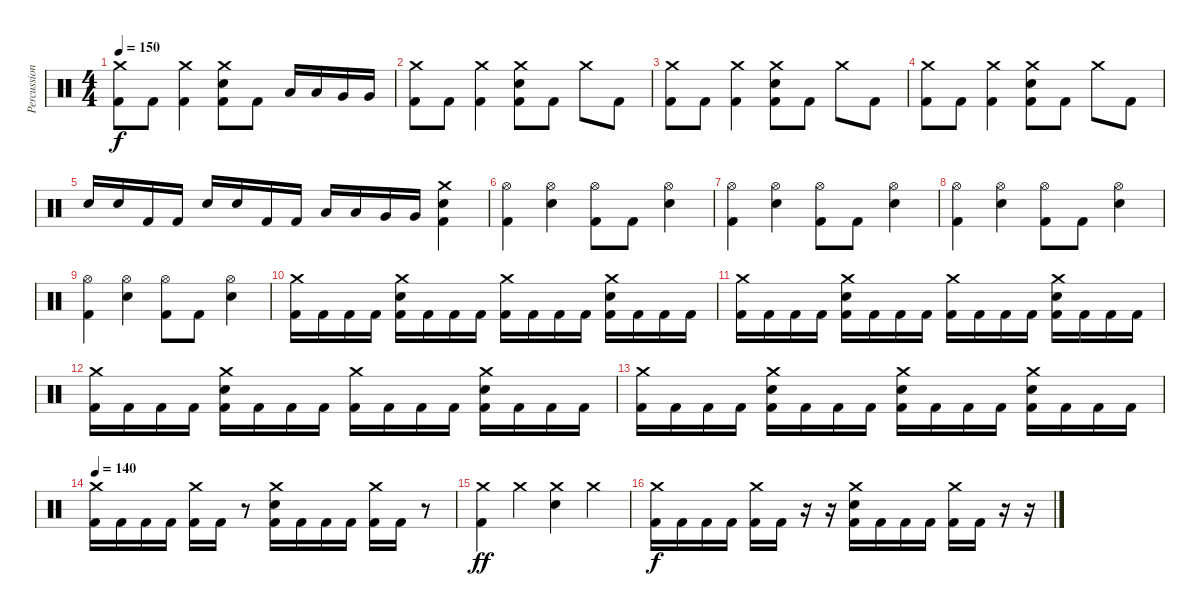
\track ("Percussion" "Percussion") {instrument percussion}
\staff {score}
\articulation defaults
\ts (4 4)
\tempo 150
\clef neutral
\ks c
("Crash medium (hit)" "Kick (hit) 2").8{dy f} "Kick (hit) 2".8 ("Crash medium (hit)" "Kick (hit) 2").4 ("Crash medium (hit)" "Electric Snare (hit)" "Kick (hit) 2").8 "Kick (hit) 2".8 "Low Tom (hit)".16 "Low Tom (hit)".16 "Very Low Tom (hit)".16 "Very Low Tom (hit)".16 |
("Crash medium (hit)" "Kick (hit) 2").8 "Kick (hit) 2".8 ("Crash medium (hit)" "Kick (hit) 2").4 ("Crash medium (hit)" "Electric Snare (hit)" "Kick (hit) 2").8 "Kick (hit) 2".8 "Crash medium (hit)".8 "Kick (hit) 2".8 |
("Crash medium (hit)" "Kick (hit) 2").8 "Kick (hit) 2".8 ("Crash medium (hit)" "Kick (hit) 2").4 ("Crash medium (hit)" "Electric Snare (hit)" "Kick (hit) 2").8 "Kick (hit) 2".8 "Crash medium (hit)".8 "Kick (hit) 2".8 |
("Crash medium (hit)" "Kick (hit) 2").8 "Kick (hit) 2".8 ("Crash medium (hit)" "Kick (hit) 2").4 ("Crash medium (hit)" "Electric Snare (hit)" "Kick (hit) 2").8 "Kick (hit) 2".8 "Crash medium (hit)".8 "Kick (hit) 2".8 |
"Electric Snare (hit)".16 "Electric Snare (hit)".16 "Kick (hit) 2".16 "Kick (hit) 2".16 "Electric Snare (hit)".16 "Electric Snare (hit)".16 "Kick (hit) 2".16 "Kick (hit) 2".16 "Low Tom (hit)".16 "Low Tom (hit)".16 "Very Low Tom (hit)".16 "Very Low Tom (hit)".16 ("Crash medium (hit)" "Electric Snare (hit)" "Kick (hit) 2").4 |
("Hi-Hat (open)" "Kick (hit) 2").4 ("Hi-Hat (open)" "Electric Snare (hit)").4 ("Hi-Hat (open)" "Kick (hit) 2").8 "Kick (hit) 2".8 ("Hi-Hat (open)" "Electric Snare (hit)").4 |
("Hi-Hat (open)" "Kick (hit) 2").4 ("Hi-Hat (open)" "Electric Snare (hit)").4 ("Hi-Hat (open)" "Kick (hit) 2").8 "Kick (hit) 2".8 ("Hi-Hat (open)" "Electric Snare (hit)").4 |
("Hi-Hat (open)" "Kick (hit) 2").4 ("Hi-Hat (open)" "Electric Snare (hit)").4 ("Hi-Hat (open)" "Kick (hit) 2").8 "Kick (hit) 2".8 ("Hi-Hat (open)" "Electric Snare (hit)").4 |
("Hi-Hat (open)" "Kick (hit) 2").4 ("Hi-Hat (open)" "Electric Snare (hit)").4 ("Hi-Hat (open)" "Kick (hit) 2").8 "Kick (hit) 2".8 ("Hi-Hat (open)" "Electric Snare (hit)").4 |
("Crash medium (hit)" "Kick (hit) 2").16 "Kick (hit) 2".16 "Kick (hit) 2".16 "Kick (hit) 2".16 ("Crash medium (hit)" "Electric Snare (hit)" "Kick (hit) 2").16 "Kick (hit) 2".16 "Kick (hit) 2".16 "Kick (hit) 2".16 ("Crash medium (hit)" "Kick (hit) 2").16 "Kick (hit) 2".16 "Kick (hit) 2".16 "Kick (hit) 2".16 ("Crash medium (hit)" "Electric Snare (hit)" "Kick (hit) 2").16 "Kick (hit) 2".16 "Kick (hit) 2".16 "Kick (hit) 2".16 |
("Crash medium (hit)" "Kick (hit) 2").16 "Kick (hit) 2".16 "Kick (hit) 2".16 "Kick (hit) 2".16 ("Crash medium (hit)" "Electric Snare (hit)" "Kick (hit) 2").16 "Kick (hit) 2".16 "Kick (hit) 2".16 "Kick (hit) 2".16 ("Crash medium (hit)" "Kick (hit) 2").16 "Kick (hit) 2".16 "Kick (hit) 2".16 "Kick (hit) 2".16 ("Crash medium (hit)" "Electric Snare (hit)" "Kick (hit) 2").16 "Kick (hit) 2".16 "Kick (hit) 2".16 "Kick (hit) 2".16 |
("Crash medium (hit)" "Kick (hit) 2").16 "Kick (hit) 2".16 "Kick (hit) 2".16 "Kick (hit) 2".16 ("Crash medium (hit)" "Electric Snare (hit)" "Kick (hit) 2").16 "Kick (hit) 2".16 "Kick (hit) 2".16 "Kick (hit) 2".16 ("Crash medium (hit)" "Kick (hit) 2").16 "Kick (hit) 2".16 "Kick (hit) 2".16 "Kick (hit) 2".16 ("Crash medium (hit)" "Electric Snare (hit)" "Kick (hit) 2").16 "Kick (hit) 2".16 "Kick (hit) 2".16 "Kick (hit) 2".16 |
("Crash medium (hit)" "Kick (hit) 2").16 "Kick (hit) 2".16 "Kick (hit) 2".16 "Kick (hit) 2".16 ("Crash medium (hit)" "Electric Snare (hit)" "Kick (hit) 2").16 "Kick (hit) 2".16 "Kick (hit) 2".16 "Kick (hit) 2".16 ("Crash medium (hit)" "Electric Snare (hit)" "Kick (hit) 2").16 "Kick (hit) 2".16 "Kick (hit) 2".16 "Kick (hit) 2".16 ("Crash medium (hit)" "Electric Snare (hit)" "Kick (hit) 2").16 "Kick (hit) 2".16 "Kick (hit) 2".16 "Kick (hit) 2".16 |
\tempo 140
("Crash medium (hit)" "Kick (hit) 2").16 "Kick (hit) 2".16 "Kick (hit) 2".16 "Kick (hit) 2".16 ("Crash medium (hit)" "Kick (hit) 2").16 "Kick (hit) 2".16 r.8 ("Crash medium (hit)" "Electric Snare (hit)" "Kick (hit) 2").16 "Kick (hit) 2".16 "Kick (hit) 2".16 "Kick (hit) 2".16 ("Crash medium (hit)" "Kick (hit) 2").16 "Kick (hit) 2".16 r.8 |
("Crash medium (hit)" "Kick (hit) 2").4{dy ff} "Crash medium (hit)".4 ("Crash medium (hit)" "Electric Snare (hit)").4 "Crash medium (hit)".4 |
("Crash medium (hit)" "Kick (hit) 2").16{dy f} "Kick (hit) 2".16 "Kick (hit) 2".16 "Kick (hit) 2".16 ("Crash medium (hit)" "Kick (hit) 2").16 "Kick (hit) 2".16 r.16 r.16 ("Crash medium (hit)" "Electric Snare (hit)" "Kick (hit) 2").16 "Kick (hit) 2".16 "Kick (hit) 2".16 "Kick (hit) 2".16 ("Crash medium (hit)" "Kick (hit) 2").16 "Kick (hit) 2".16 r.16 r.16
